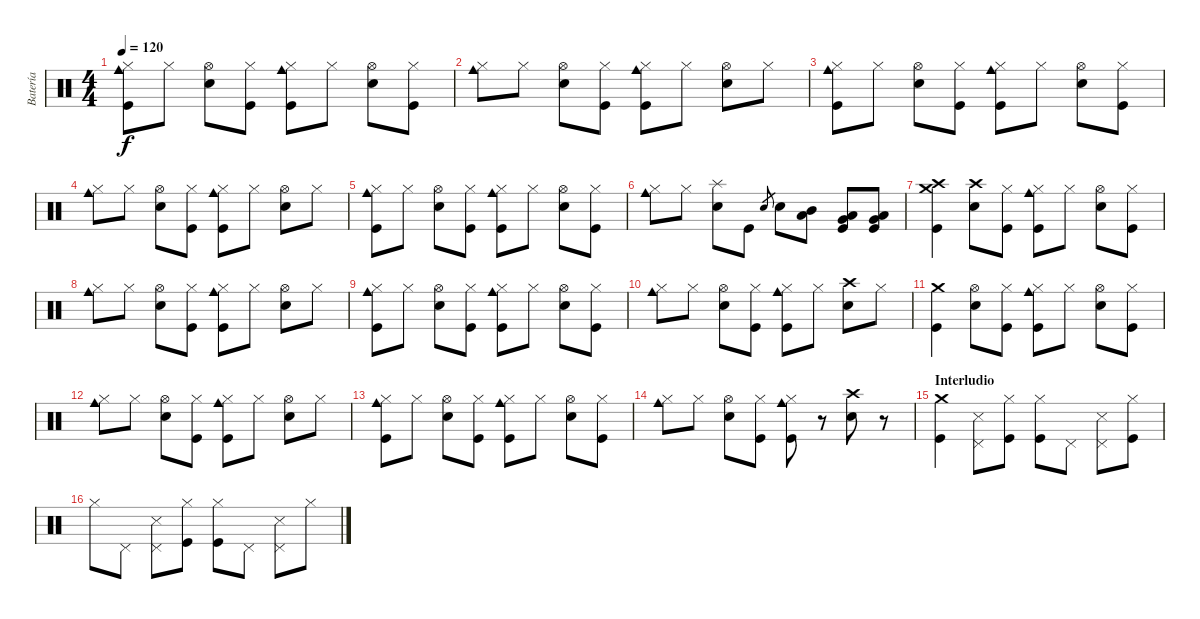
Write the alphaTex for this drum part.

\track ("Batería" "Batería") {instrument percussion}
\staff {score}
\articulation defaults
\ts (4 4)
\tempo 120
\clef neutral
\ks c
("Hi-Hat (closed)" "Cowbell medium (hit)" "Kick (hit)").8{dy f} "Hi-Hat (closed)".8 ("Hi-Hat (open)" "Electric Snare (hit)").8 ("Hi-Hat (closed)" "Kick (hit)").8 ("Hi-Hat (closed)" "Cowbell medium (hit)" "Kick (hit)").8 "Hi-Hat (closed)".8 ("Hi-Hat (open)" "Electric Snare (hit)").8 ("Hi-Hat (closed)" "Kick (hit)").8 |
("Hi-Hat (closed)" "Cowbell medium (hit)").8 "Hi-Hat (closed)".8 ("Hi-Hat (open)" "Electric Snare (hit)").8 ("Hi-Hat (closed)" "Kick (hit)").8 ("Hi-Hat (closed)" "Cowbell medium (hit)" "Kick (hit)").8 "Hi-Hat (closed)".8 ("Hi-Hat (open)" "Electric Snare (hit)").8 "Hi-Hat (closed)".8 |
("Hi-Hat (closed)" "Cowbell medium (hit)" "Kick (hit)").8 "Hi-Hat (closed)".8 ("Hi-Hat (open)" "Electric Snare (hit)").8 ("Hi-Hat (closed)" "Kick (hit)").8 ("Hi-Hat (closed)" "Cowbell medium (hit)" "Kick (hit)").8 "Hi-Hat (closed)".8 ("Hi-Hat (open)" "Electric Snare (hit)").8 ("Hi-Hat (closed)" "Kick (hit)").8 |
("Hi-Hat (closed)" "Cowbell medium (hit)").8 "Hi-Hat (closed)".8 ("Hi-Hat (open)" "Electric Snare (hit)").8 ("Hi-Hat (closed)" "Kick (hit)").8 ("Hi-Hat (closed)" "Cowbell medium (hit)" "Kick (hit)").8 "Hi-Hat (closed)".8 ("Hi-Hat (open)" "Electric Snare (hit)").8 "Hi-Hat (closed)".8 |
("Hi-Hat (closed)" "Cowbell medium (hit)" "Kick (hit)").8 "Hi-Hat (closed)".8 ("Hi-Hat (open)" "Electric Snare (hit)").8 ("Hi-Hat (closed)" "Kick (hit)").8 ("Hi-Hat (closed)" "Cowbell medium (hit)" "Kick (hit)").8 "Hi-Hat (closed)".8 ("Hi-Hat (open)" "Electric Snare (hit)").8 ("Hi-Hat (closed)" "Kick (hit)").8 |
("Hi-Hat (closed)" "Cowbell medium (hit)").8 "Hi-Hat (closed)".8 ("Splash (hit)" "Electric Snare (hit)").8 "Kick (hit)".8 "Electric Snare (hit)".8{gr} "Electric Snare (hit)".8 ("Mid Tom (hit)" "Low Tom (hit)").8 ("Low Tom (hit)" "Very Low Tom (hit)" "Kick (hit)").8 ("Low Tom (hit)" "Very Low Tom (hit)" "Kick (hit)").8 |
("Crash medium (hit)" "Crash high (hit)" "Kick (hit)").4 ("Crash high (hit)" "Electric Snare (hit)").8 ("Hi-Hat (closed)" "Kick (hit)").8 ("Hi-Hat (closed)" "Cowbell medium (hit)" "Kick (hit)").8 "Hi-Hat (closed)".8 ("Hi-Hat (open)" "Electric Snare (hit)").8 ("Hi-Hat (closed)" "Kick (hit)").8 |
("Hi-Hat (closed)" "Cowbell medium (hit)").8 "Hi-Hat (closed)".8 ("Hi-Hat (open)" "Electric Snare (hit)").8 ("Hi-Hat (closed)" "Kick (hit)").8 ("Hi-Hat (closed)" "Cowbell medium (hit)" "Kick (hit)").8 "Hi-Hat (closed)".8 ("Hi-Hat (open)" "Electric Snare (hit)").8 "Hi-Hat (closed)".8 |
("Hi-Hat (closed)" "Cowbell medium (hit)" "Kick (hit)").8 "Hi-Hat (closed)".8 ("Hi-Hat (open)" "Electric Snare (hit)").8 ("Hi-Hat (closed)" "Kick (hit)").8 ("Hi-Hat (closed)" "Cowbell medium (hit)" "Kick (hit)").8 "Hi-Hat (closed)".8 ("Hi-Hat (open)" "Electric Snare (hit)").8 ("Hi-Hat (closed)" "Kick (hit)").8 |
("Hi-Hat (closed)" "Cowbell medium (hit)").8 "Hi-Hat (closed)".8 ("Hi-Hat (open)" "Electric Snare (hit)").8 ("Hi-Hat (closed)" "Kick (hit)").8 ("Hi-Hat (closed)" "Cowbell medium (hit)" "Kick (hit)").8 "Hi-Hat (closed)".8 ("Crash high (hit)" "Electric Snare (hit)").8 "Hi-Hat (closed)".8 |
("Crash medium (hit)" "Kick (hit)").4 ("Hi-Hat (open)" "Electric Snare (hit)").8 ("Hi-Hat (closed)" "Kick (hit)").8 ("Hi-Hat (closed)" "Cowbell medium (hit)" "Kick (hit)").8 "Hi-Hat (closed)".8 ("Hi-Hat (open)" "Electric Snare (hit)").8 ("Hi-Hat (closed)" "Kick (hit)").8 |
("Hi-Hat (closed)" "Cowbell medium (hit)").8 "Hi-Hat (closed)".8 ("Hi-Hat (open)" "Electric Snare (hit)").8 ("Hi-Hat (closed)" "Kick (hit)").8 ("Hi-Hat (closed)" "Cowbell medium (hit)" "Kick (hit)").8 "Hi-Hat (closed)".8 ("Hi-Hat (open)" "Electric Snare (hit)").8 "Hi-Hat (closed)".8 |
("Hi-Hat (closed)" "Cowbell medium (hit)" "Kick (hit)").8 "Hi-Hat (closed)".8 ("Hi-Hat (open)" "Electric Snare (hit)").8 ("Hi-Hat (closed)" "Kick (hit)").8 ("Hi-Hat (closed)" "Cowbell medium (hit)" "Kick (hit)").8 "Hi-Hat (closed)".8 ("Hi-Hat (open)" "Electric Snare (hit)").8 ("Hi-Hat (closed)" "Kick (hit)").8 |
("Hi-Hat (closed)" "Cowbell medium (hit)").8 "Hi-Hat (closed)".8 ("Hi-Hat (open)" "Electric Snare (hit)").8 ("Hi-Hat (closed)" "Kick (hit)").8 ("Hi-Hat (closed)" "Cowbell medium (hit)" "Kick (hit)").8 r.8 ("Crash high (hit)" "Electric Snare (hit)").8 r.8 |
\section ("" "Interludio")
("Crash medium (hit)" "Kick (hit)").4 ("Pedal Hi-Hat (hit)" "Snare (side stick) 3").8 ("Hi-Hat (closed)" "Kick (hit)").8 ("Hi-Hat (closed)" "Kick (hit)").8 "Pedal Hi-Hat (hit)".8 ("Pedal Hi-Hat (hit)" "Snare (side stick) 3").8 ("Hi-Hat (closed)" "Kick (hit)").8 |
"Hi-Hat (closed)".8 "Pedal Hi-Hat (hit)".8 ("Pedal Hi-Hat (hit)" "Snare (side stick) 3").8 ("Hi-Hat (closed)" "Kick (hit)").8 ("Hi-Hat (closed)" "Kick (hit)").8 "Pedal Hi-Hat (hit)".8 ("Pedal Hi-Hat (hit)" "Snare (side stick) 3").8 "Hi-Hat (closed)".8
